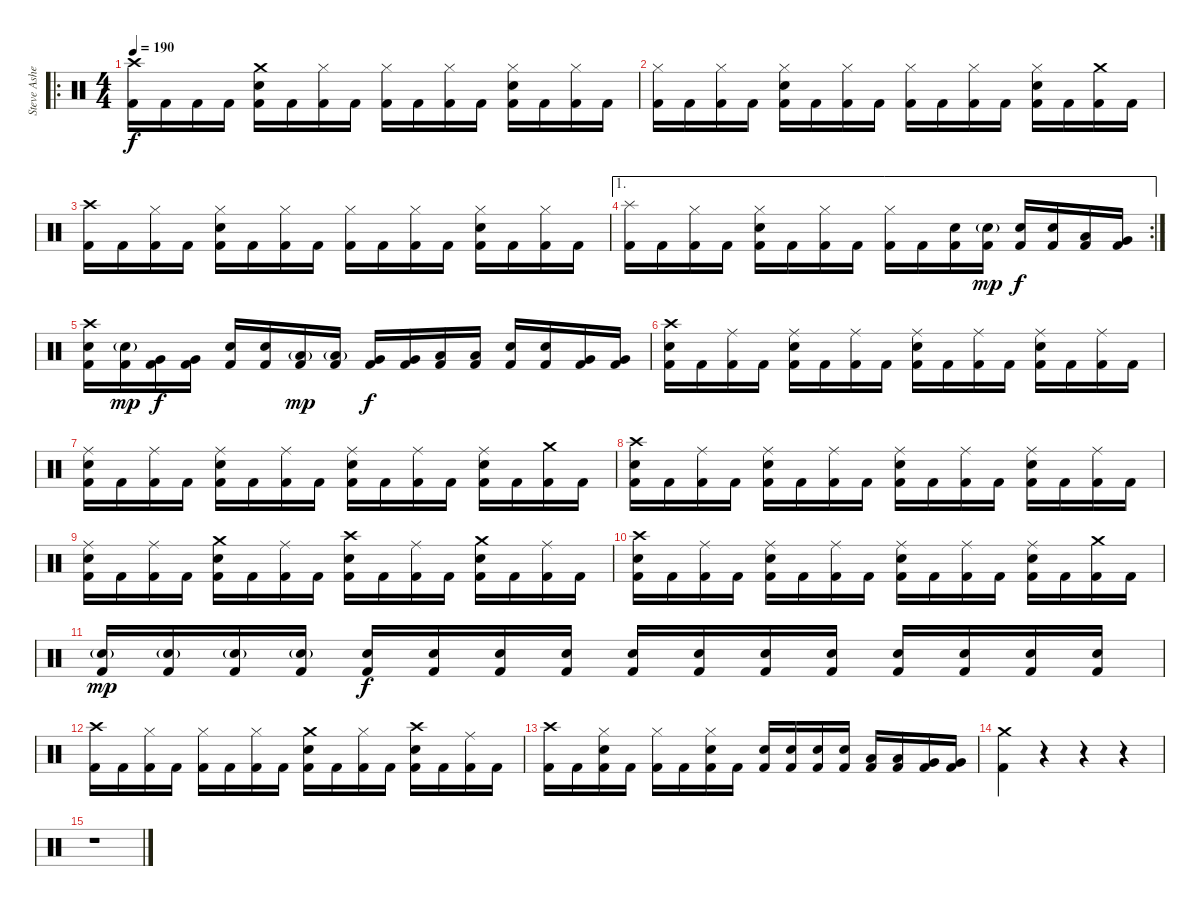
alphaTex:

\track ("Steve Asheim" "Steve Ashe") {instrument percussion}
\staff {score}
\articulation defaults
\ro
\ts (4 4)
\tempo 190
\clef neutral
\ks c
("Crash high (hit)" "Kick (hit) 2").16{dy f} "Kick (hit) 2".16 "Kick (hit) 2".16 "Kick (hit) 2".16 ("Crash medium (hit)" "Snare (hit) 2" "Kick (hit) 2").16 "Kick (hit) 2".16 ("Hi-Hat (closed)" "Kick (hit) 2").16 "Kick (hit) 2".16 ("Hi-Hat (closed)" "Kick (hit) 2").16 "Kick (hit) 2".16 ("Hi-Hat (closed)" "Kick (hit) 2").16 "Kick (hit) 2".16 ("Hi-Hat (closed)" "Snare (hit) 2" "Kick (hit) 2").16 "Kick (hit) 2".16 ("Hi-Hat (closed)" "Kick (hit) 2").16 "Kick (hit) 2".16 |
("Hi-Hat (closed)" "Kick (hit) 2").16 "Kick (hit) 2".16 ("Hi-Hat (closed)" "Kick (hit) 2").16 "Kick (hit) 2".16 ("Hi-Hat (closed)" "Snare (hit) 2" "Kick (hit) 2").16 "Kick (hit) 2".16 ("Hi-Hat (closed)" "Kick (hit) 2").16 "Kick (hit) 2".16 ("Hi-Hat (closed)" "Kick (hit) 2").16 "Kick (hit) 2".16 ("Hi-Hat (closed)" "Kick (hit) 2").16 "Kick (hit) 2".16 ("Hi-Hat (closed)" "Snare (hit) 2" "Kick (hit) 2").16 "Kick (hit) 2".16 ("Crash medium (hit)" "Kick (hit) 2").16 "Kick (hit) 2".16 |
("Crash high (hit)" "Kick (hit) 2").16 "Kick (hit) 2".16 ("Hi-Hat (closed)" "Kick (hit) 2").16 "Kick (hit) 2".16 ("Hi-Hat (closed)" "Snare (hit) 2" "Kick (hit) 2").16 "Kick (hit) 2".16 ("Hi-Hat (closed)" "Kick (hit) 2").16 "Kick (hit) 2".16 ("Hi-Hat (closed)" "Kick (hit) 2").16 "Kick (hit) 2".16 ("Hi-Hat (closed)" "Kick (hit) 2").16 "Kick (hit) 2".16 ("Hi-Hat (closed)" "Snare (hit) 2" "Kick (hit) 2").16 "Kick (hit) 2".16 ("Hi-Hat (closed)" "Kick (hit) 2").16 "Kick (hit) 2".16 |
\ae 1
\rc 2
("Splash (hit)" "Kick (hit) 2").16 "Kick (hit) 2".16 ("Hi-Hat (closed)" "Kick (hit) 2").16 "Kick (hit) 2".16 ("Hi-Hat (closed)" "Snare (hit) 2" "Kick (hit) 2").16 "Kick (hit) 2".16 ("Hi-Hat (closed)" "Kick (hit) 2").16 "Kick (hit) 2".16 ("Hi-Hat (closed)" "Kick (hit) 2").16 "Kick (hit) 2".16 ("Snare (hit) 2" "Kick (hit) 2").16 ("Snare (hit) 2"{g} "Kick (hit) 2").16{dy mp} ("Snare (hit) 2" "Kick (hit) 2").16{dy f} ("Snare (hit) 2" "Kick (hit) 2").16 ("Low Tom (hit)" "Kick (hit) 2").16 ("Very Low Tom (hit)" "Kick (hit) 2").16 |
("Crash high (hit)" "Snare (hit) 2" "Kick (hit) 2").16 ("Snare (hit) 2"{g} "Kick (hit) 2").16{dy mp} ("Very Low Tom (hit)" "Kick (hit) 2").16{dy f} ("Very Low Tom (hit)" "Kick (hit) 2").16 ("Snare (hit) 2" "Kick (hit) 2").16 ("Snare (hit) 2" "Kick (hit) 2").16 ("Low Tom (hit)"{g} "Kick (hit) 2").16{dy mp} ("Low Tom (hit)"{g} "Kick (hit) 2").16 ("Very Low Tom (hit)" "Kick (hit) 2").16{dy f} ("Very Low Tom (hit)" "Kick (hit) 2").16 ("Low Floor Tom (hit)" "Kick (hit) 2").16 ("Low Floor Tom (hit)" "Kick (hit) 2").16 ("Snare (hit) 2" "Kick (hit) 2").16 ("Snare (hit) 2" "Kick (hit) 2").16 ("Very Low Tom (hit)" "Kick (hit) 2").16 ("Very Low Tom (hit)" "Kick (hit) 2").16 |
("Crash high (hit)" "Snare (hit) 2" "Kick (hit) 2").16 "Kick (hit) 2".16 ("Ride (middle)" "Kick (hit) 2").16 "Kick (hit) 2".16 ("Ride (middle)" "Snare (hit) 2" "Kick (hit) 2").16 "Kick (hit) 2".16 ("Ride (middle)" "Kick (hit) 2").16 "Kick (hit) 2".16 ("Ride (middle)" "Snare (hit) 2" "Kick (hit) 2").16 "Kick (hit) 2".16 ("Ride (middle)" "Kick (hit) 2").16 "Kick (hit) 2".16 ("Ride (middle)" "Snare (hit) 2" "Kick (hit) 2").16 "Kick (hit) 2".16 ("Ride (middle)" "Kick (hit) 2").16 "Kick (hit) 2".16 |
("Ride (middle)" "Snare (hit) 2" "Kick (hit) 2").16 "Kick (hit) 2".16 ("Ride (middle)" "Kick (hit) 2").16 "Kick (hit) 2".16 ("Ride (middle)" "Snare (hit) 2" "Kick (hit) 2").16 "Kick (hit) 2".16 ("Ride (middle)" "Kick (hit) 2").16 "Kick (hit) 2".16 ("Ride (middle)" "Snare (hit) 2" "Kick (hit) 2").16 "Kick (hit) 2".16 ("Ride (middle)" "Kick (hit) 2").16 "Kick (hit) 2".16 ("Ride (middle)" "Snare (hit) 2" "Kick (hit) 2").16 "Kick (hit) 2".16 ("Crash medium (hit)" "Kick (hit) 2").16 "Kick (hit) 2".16 |
("Crash high (hit)" "Snare (hit) 2" "Kick (hit) 2").16 "Kick (hit) 2".16 ("Ride (middle)" "Kick (hit) 2").16 "Kick (hit) 2".16 ("Ride (middle)" "Snare (hit) 2" "Kick (hit) 2").16 "Kick (hit) 2".16 ("Ride (middle)" "Kick (hit) 2").16 "Kick (hit) 2".16 ("Ride (middle)" "Snare (hit) 2" "Kick (hit) 2").16 "Kick (hit) 2".16 ("Ride (middle)" "Kick (hit) 2").16 "Kick (hit) 2".16 ("Ride (middle)" "Snare (hit) 2" "Kick (hit) 2").16 "Kick (hit) 2".16 ("Ride (middle)" "Kick (hit) 2").16 "Kick (hit) 2".16 |
("Ride (middle)" "Snare (hit) 2" "Kick (hit) 2").16 "Kick (hit) 2".16 ("Ride (middle)" "Kick (hit) 2").16 "Kick (hit) 2".16 ("Crash medium (hit)" "Snare (hit) 2" "Kick (hit) 2").16 "Kick (hit) 2".16 ("Ride (middle)" "Kick (hit) 2").16 "Kick (hit) 2".16 ("Crash high (hit)" "Snare (hit) 2" "Kick (hit) 2").16 "Kick (hit) 2".16 ("Ride (middle)" "Kick (hit) 2").16 "Kick (hit) 2".16 ("Crash medium (hit)" "Snare (hit) 2" "Kick (hit) 2").16 "Kick (hit) 2".16 ("Ride (middle)" "Kick (hit) 2").16 "Kick (hit) 2".16 |
("Crash high (hit)" "Snare (hit) 2" "Kick (hit) 2").16 "Kick (hit) 2".16 ("Ride (middle)" "Kick (hit) 2").16 "Kick (hit) 2".16 ("Ride (middle)" "Snare (hit) 2" "Kick (hit) 2").16 "Kick (hit) 2".16 ("Ride (middle)" "Kick (hit) 2").16 "Kick (hit) 2".16 ("Ride (middle)" "Snare (hit) 2" "Kick (hit) 2").16 "Kick (hit) 2".16 ("Ride (middle)" "Kick (hit) 2").16 "Kick (hit) 2".16 ("Ride (middle)" "Snare (hit) 2" "Kick (hit) 2").16 "Kick (hit) 2".16 ("Crash medium (hit)" "Kick (hit) 2").16 "Kick (hit) 2".16 |
("Snare (hit) 2"{g} "Kick (hit) 2").16{dy mp} ("Snare (hit) 2"{g} "Kick (hit) 2").16 ("Snare (hit) 2"{g} "Kick (hit) 2").16 ("Snare (hit) 2"{g} "Kick (hit) 2").16 ("Snare (hit) 2" "Kick (hit) 2").16{dy f} ("Snare (hit) 2" "Kick (hit) 2").16 ("Snare (hit) 2" "Kick (hit) 2").16 ("Snare (hit) 2" "Kick (hit) 2").16 ("Snare (hit) 2" "Kick (hit) 2").16 ("Snare (hit) 2" "Kick (hit) 2").16 ("Snare (hit) 2" "Kick (hit) 2").16 ("Snare (hit) 2" "Kick (hit) 2").16 ("Snare (hit) 2" "Kick (hit) 2").16 ("Snare (hit) 2" "Kick (hit) 2").16 ("Snare (hit) 2" "Kick (hit) 2").16 ("Snare (hit) 2" "Kick (hit) 2").16 |
("Crash high (hit)" "Kick (hit) 2").16 "Kick (hit) 2".16 ("Hi-Hat (closed)" "Kick (hit) 2").16 "Kick (hit) 2".16 ("Hi-Hat (closed)" "Kick (hit) 2").16 "Kick (hit) 2".16 ("Hi-Hat (closed)" "Kick (hit) 2").16 "Kick (hit) 2".16 ("Crash medium (hit)" "Snare (hit) 2" "Kick (hit) 2").16 "Kick (hit) 2".16 ("Hi-Hat (closed)" "Kick (hit) 2").16 "Kick (hit) 2".16 ("Crash high (hit)" "Snare (hit) 2" "Kick (hit) 2").16 "Kick (hit) 2".16 ("Ride (middle)" "Kick (hit) 2").16 "Kick (hit) 2".16 |
("Crash high (hit)" "Kick (hit) 2").16 "Kick (hit) 2".16 ("Hi-Hat (closed)" "Snare (hit) 2" "Kick (hit) 2").16 "Kick (hit) 2".16 ("Hi-Hat (closed)" "Kick (hit) 2").16 "Kick (hit) 2".16 ("Hi-Hat (closed)" "Snare (hit) 2" "Kick (hit) 2").16 "Kick (hit) 2".16 ("Snare (hit) 2" "Kick (hit) 2").16 ("Snare (hit) 2" "Kick (hit) 2").16 ("Snare (hit) 2" "Kick (hit) 2").16 ("Snare (hit) 2" "Kick (hit) 2").16 ("Low Tom (hit)" "Kick (hit) 2").16 ("Low Tom (hit)" "Kick (hit) 2").16 ("Very Low Tom (hit)" "Kick (hit) 2").16 ("Very Low Tom (hit)" "Kick (hit) 2").16 |
("Crash medium (hit)" "Kick (hit) 2").4 r.4{volume 0} r.4 r.4 |
r.1
